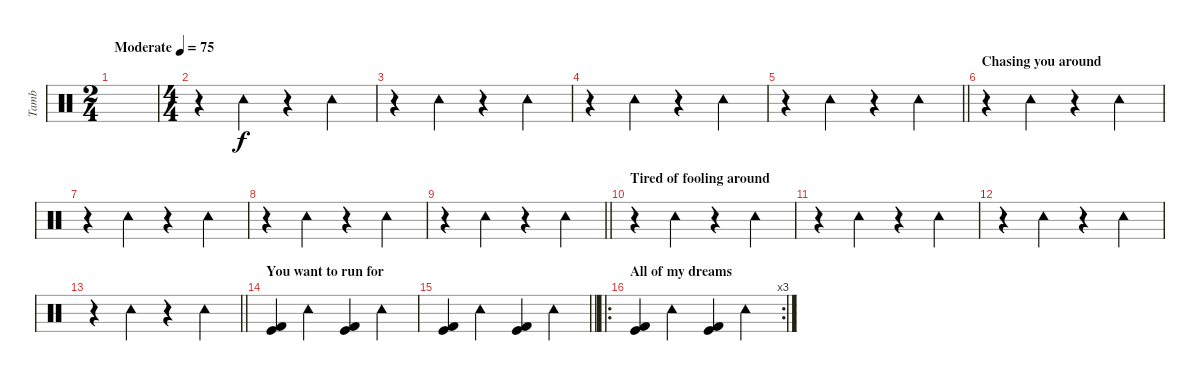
\track ("Tamb" "Tamb") {instrument percussion}
\staff {score}
\articulation defaults
\ts (2 4)
\tempo (75 "Moderate")
\clef neutral
\ks c
|
\ts (4 4)
r.4 "Tambourine (hit)".4 r.4 "Tambourine (hit)".4 |
r.4 "Tambourine (hit)".4 r.4 "Tambourine (hit)".4 |
r.4 "Tambourine (hit)".4 r.4 "Tambourine (hit)".4 |
\barLineRight lightlight
r.4 "Tambourine (hit)".4 r.4 "Tambourine (hit)".4 |
\section ("" "Chasing you around")
r.4 "Tambourine (hit)".4 r.4 "Tambourine (hit)".4 |
r.4 "Tambourine (hit)".4 r.4 "Tambourine (hit)".4 |
r.4 "Tambourine (hit)".4 r.4 "Tambourine (hit)".4 |
\barLineRight lightlight
r.4 "Tambourine (hit)".4 r.4 "Tambourine (hit)".4 |
\section ("" "Tired of fooling around")
r.4 "Tambourine (hit)".4 r.4 "Tambourine (hit)".4 |
r.4 "Tambourine (hit)".4 r.4 "Tambourine (hit)".4 |
r.4 "Tambourine (hit)".4 r.4 "Tambourine (hit)".4 |
\barLineRight lightlight
r.4 "Tambourine (hit)".4 r.4 "Tambourine (hit)".4 |
\section ("" "You want to run for")
("Kick (hit) 2" "Kick (hit)").4 "Tambourine (hit)".4 ("Kick (hit) 2" "Kick (hit)").4 "Tambourine (hit)".4 |
\barLineRight lightlight
("Kick (hit) 2" "Kick (hit)").4 "Tambourine (hit)".4 ("Kick (hit) 2" "Kick (hit)").4 "Tambourine (hit)".4 |
\ro
\rc 3
\section ("" "All of my dreams")
("Kick (hit) 2" "Kick (hit)").4 "Tambourine (hit)".4 ("Kick (hit) 2" "Kick (hit)").4 "Tambourine (hit)".4
